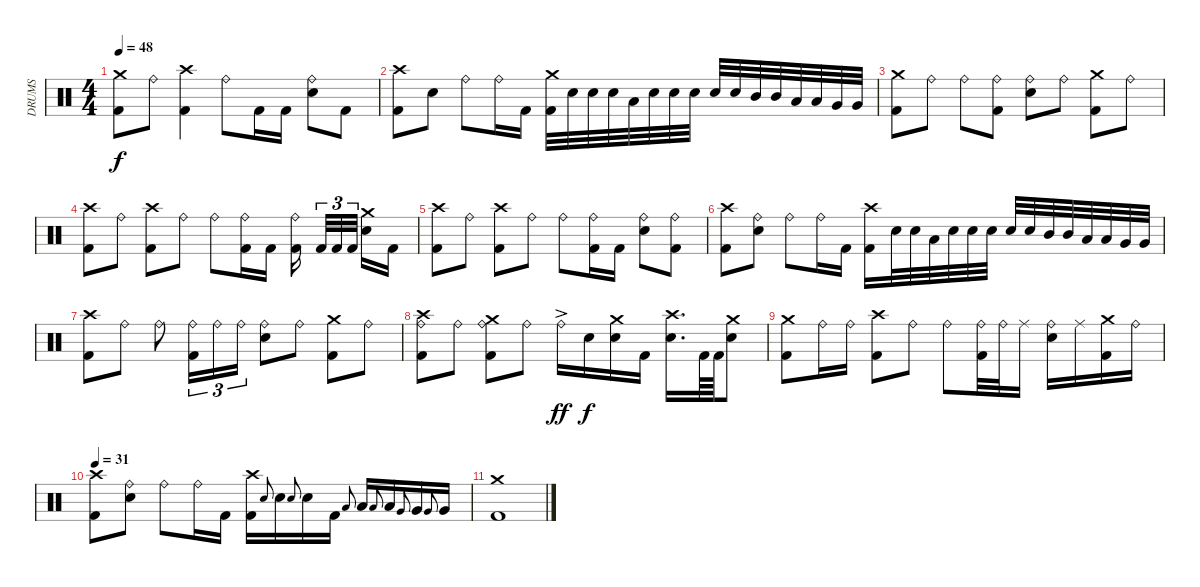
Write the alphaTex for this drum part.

\track ("DRUMS" "DRUMS") {instrument percussion}
\staff {score}
\articulation defaults
\ts (4 4)
\tempo 48
\clef neutral
\ks c
("Crash medium (hit)" "Kick (hit) 2").8{dy f} "Ride (bell)".8 ("Crash high (hit)" "Kick (hit) 2").4 "Ride (bell)".8 "Kick (hit) 2".16 "Kick (hit) 2".16 ("Ride (bell)" "Snare (hit) 2").8 "Kick (hit) 2".8 |
("Crash high (hit)" "Kick (hit) 2").8 "Snare (hit) 2".8 "Ride (bell)".8 "Ride (bell)".16 "Kick (hit) 2".16 ("Crash medium (hit)" "Kick (hit) 2").32 "Snare (hit) 2".32 "Snare (hit) 2".32 "Snare (hit) 2".32 "Low Tom (hit)".32 "Snare (hit) 2".32 "Snare (hit) 2".32 "Snare (hit) 2".32 "Snare (hit) 2".32 "Snare (hit) 2".32 "Mid Tom (hit)".32 "Mid Tom (hit)".32 "Low Tom (hit)".32 "Low Tom (hit)".32 "Very Low Tom (hit)".32 "Very Low Tom (hit)".32 |
("Crash medium (hit)" "Kick (hit) 2").8 "Ride (bell)".8 "Ride (bell)".8 ("Ride (bell)" "Kick (hit) 2").8 ("Ride (bell)" "Snare (hit) 2").8 "Ride (bell)".8 ("Crash medium (hit)" "Kick (hit) 2").8 "Ride (bell)".8 |
("Crash high (hit)" "Kick (hit) 2").8 "Ride (bell)".8 ("Crash high (hit)" "Kick (hit) 2").8 "Ride (bell)".8 "Ride (bell)".8 ("Ride (bell)" "Kick (hit) 2").16 "Kick (hit) 2".16 ("Ride (bell)" "Kick (hit) 2").16{beam splitsecondary} "Kick (hit) 2".32{tu (3 2)} "Kick (hit) 2".32{tu (3 2)} "Kick (hit) 2".32{tu (3 2) beam splitsecondary} ("Crash medium (hit)" "Snare (hit) 2").16 "Kick (hit) 2".16 |
("Crash high (hit)" "Kick (hit) 2").8 "Ride (bell)".8 ("Crash high (hit)" "Kick (hit) 2").8 "Ride (bell)".8 "Ride (bell)".8 ("Ride (bell)" "Kick (hit) 2").16 "Kick (hit) 2".16 ("Ride (bell)" "Snare (hit) 2").8 ("Ride (bell)" "Kick (hit) 2").8 |
("Crash high (hit)" "Kick (hit) 2").8 ("Ride (bell)" "Snare (hit) 2").8 "Ride (bell)".8 "Ride (bell)".16 "Kick (hit) 2".16 ("Crash high (hit)" "Kick (hit) 2").16 "Snare (hit) 2".32 "Snare (hit) 2".32 "Low Tom (hit)".32 "Snare (hit) 2".32 "Snare (hit) 2".32 "Snare (hit) 2".32 "Snare (hit) 2".32 "Snare (hit) 2".32 "Mid Tom (hit)".32 "Mid Tom (hit)".32 "Low Tom (hit)".32 "Low Tom (hit)".32 "Very Low Tom (hit)".32 "Very Low Tom (hit)".32 |
("Crash high (hit)" "Kick (hit) 2").8 "Ride (bell)".8 "Ride (bell)".8 ("Ride (bell)" "Kick (hit) 2").16{tu (3 2)} "Ride (bell)".16{tu (3 2)} "Ride (bell)".16{tu (3 2)} ("Ride (bell)" "Snare (hit) 2").8 "Ride (bell)".8 ("Crash medium (hit)" "Kick (hit) 2").8 "Ride (bell)".8 |
("Crash high (hit)" "Ride (bell)" "Kick (hit) 2").8 "Ride (bell)".8 ("Crash medium (hit)" "Ride (bell)" "Kick (hit) 2").8 "Ride (bell)".8 "Ride (bell)"{ac}.16{dy ff} "Snare (hit) 2".16{dy f} ("Crash medium (hit)" "Snare (hit) 2").16 "Kick (hit) 2".16 ("Crash high (hit)" "Snare (hit) 2").16{d} "Kick (hit) 2".64 "Kick (hit) 2".64 ("Crash medium (hit)" "Snare (hit) 2").8 |
("Crash medium (hit)" "Kick (hit) 2").8 "Ride (bell)".16 "Ride (bell)".16 ("Crash high (hit)" "Kick (hit) 2").8 "Ride (bell)".8 "Ride (bell)".8 ("Ride (bell)" "Kick (hit) 2").32 "Ride (bell)".32 "Ride (middle)".16 ("Ride (bell)" "Snare (hit) 2").16 "Ride (middle)".16 ("Crash medium (hit)" "Kick (hit) 2").16 "Ride (bell)".16 |
\tempo 31
("Crash high (hit)" "Kick (hit) 2").8 ("Ride (bell)" "Snare (hit) 2").8 "Ride (bell)".8 "Ride (bell)".16 "Kick (hit) 2".16 ("Crash high (hit)" "Kick (hit) 2").16 "Snare (hit) 2".8{gr onbeat} "Snare (hit) 2".16 "Snare (hit) 2".8{gr onbeat} "Snare (hit) 2".16 "Kick (hit) 2".16 "Low Tom (hit)".8{gr onbeat} "Low Tom (hit)".16 "Low Tom (hit)".8{gr onbeat} "Low Tom (hit)".16 "Very Low Tom (hit)".8{gr onbeat} "Very Low Tom (hit)".16 "Very Low Tom (hit)".8{gr onbeat} "Very Low Tom (hit)".16 |
("Crash medium (hit)" "Kick (hit) 2").1
